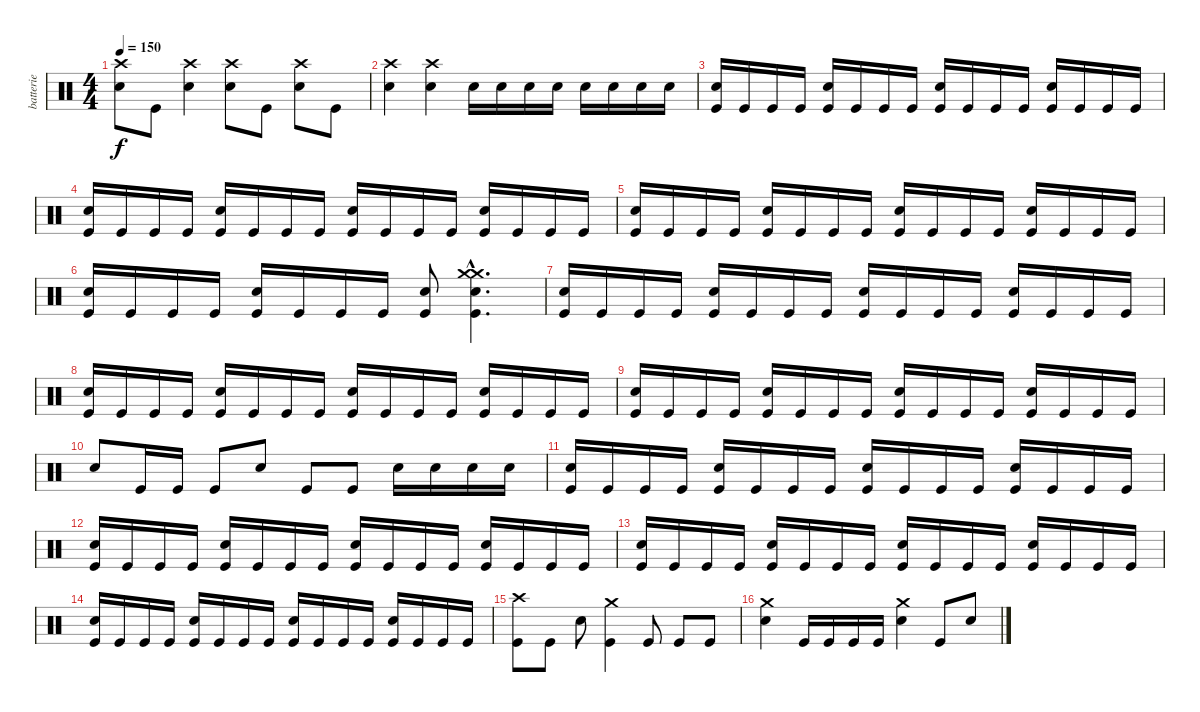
\track ("batterie" "batterie") {instrument percussion}
\staff {score}
\articulation defaults
\ts (4 4)
\tempo 150
\clef neutral
\ks c
("Crash high (hit)" "Snare (hit) 2").8{dy f} "Kick (hit)".8 ("Crash high (hit)" "Snare (hit) 2").4 ("Crash high (hit)" "Snare (hit) 2").8 "Kick (hit)".8 ("Crash high (hit)" "Snare (hit) 2").8 "Kick (hit)".8 |
("Crash high (hit)" "Snare (hit) 2").4 ("Crash high (hit)" "Snare (hit) 2").4 "Snare (hit) 2".16 "Snare (hit) 2".16 "Snare (hit) 2".16 "Snare (hit) 2".16 "Snare (hit) 2".16 "Snare (hit) 2".16 "Snare (hit) 2".16 "Snare (hit) 2".16 |
("Snare (hit) 2" "Kick (hit)").16 "Kick (hit)".16 "Kick (hit)".16 "Kick (hit)".16 ("Snare (hit) 2" "Kick (hit)").16 "Kick (hit)".16 "Kick (hit)".16 "Kick (hit)".16 ("Snare (hit) 2" "Kick (hit)").16 "Kick (hit)".16 "Kick (hit)".16 "Kick (hit)".16 ("Snare (hit) 2" "Kick (hit)").16 "Kick (hit)".16 "Kick (hit)".16 "Kick (hit)".16 |
("Snare (hit) 2" "Kick (hit)").16 "Kick (hit)".16 "Kick (hit)".16 "Kick (hit)".16 ("Snare (hit) 2" "Kick (hit)").16 "Kick (hit)".16 "Kick (hit)".16 "Kick (hit)".16 ("Snare (hit) 2" "Kick (hit)").16 "Kick (hit)".16 "Kick (hit)".16 "Kick (hit)".16 ("Snare (hit) 2" "Kick (hit)").16 "Kick (hit)".16 "Kick (hit)".16 "Kick (hit)".16 |
("Snare (hit) 2" "Kick (hit)").16 "Kick (hit)".16 "Kick (hit)".16 "Kick (hit)".16 ("Snare (hit) 2" "Kick (hit)").16 "Kick (hit)".16 "Kick (hit)".16 "Kick (hit)".16 ("Snare (hit) 2" "Kick (hit)").16 "Kick (hit)".16 "Kick (hit)".16 "Kick (hit)".16 ("Snare (hit) 2" "Kick (hit)").16 "Kick (hit)".16 "Kick (hit)".16 "Kick (hit)".16 |
("Snare (hit) 2" "Kick (hit)").16 "Kick (hit)".16 "Kick (hit)".16 "Kick (hit)".16 ("Snare (hit) 2" "Kick (hit)").16 "Kick (hit)".16 "Kick (hit)".16 "Kick (hit)".16 ("Snare (hit) 2" "Kick (hit)").8 ("Crash medium (hit)"{hac} "Crash medium (hit)"{hac} "Snare (hit) 2"{hac} "Kick (hit)"{hac}).4{d} |
("Snare (hit) 2" "Kick (hit)").16 "Kick (hit)".16 "Kick (hit)".16 "Kick (hit)".16 ("Snare (hit) 2" "Kick (hit)").16 "Kick (hit)".16 "Kick (hit)".16 "Kick (hit)".16 ("Snare (hit) 2" "Kick (hit)").16 "Kick (hit)".16 "Kick (hit)".16 "Kick (hit)".16 ("Snare (hit) 2" "Kick (hit)").16 "Kick (hit)".16 "Kick (hit)".16 "Kick (hit)".16 |
("Snare (hit) 2" "Kick (hit)").16 "Kick (hit)".16 "Kick (hit)".16 "Kick (hit)".16 ("Snare (hit) 2" "Kick (hit)").16 "Kick (hit)".16 "Kick (hit)".16 "Kick (hit)".16 ("Snare (hit) 2" "Kick (hit)").16 "Kick (hit)".16 "Kick (hit)".16 "Kick (hit)".16 ("Snare (hit) 2" "Kick (hit)").16 "Kick (hit)".16 "Kick (hit)".16 "Kick (hit)".16 |
("Snare (hit) 2" "Kick (hit)").16 "Kick (hit)".16 "Kick (hit)".16 "Kick (hit)".16 ("Snare (hit) 2" "Kick (hit)").16 "Kick (hit)".16 "Kick (hit)".16 "Kick (hit)".16 ("Snare (hit) 2" "Kick (hit)").16 "Kick (hit)".16 "Kick (hit)".16 "Kick (hit)".16 ("Snare (hit) 2" "Kick (hit)").16 "Kick (hit)".16 "Kick (hit)".16 "Kick (hit)".16 |
"Snare (hit) 2".8 "Kick (hit)".16 "Kick (hit)".16 "Kick (hit)".8 "Snare (hit) 2".8 "Kick (hit)".8 "Kick (hit)".8 "Snare (hit) 2".16 "Snare (hit) 2".16 "Snare (hit) 2".16 "Snare (hit) 2".16 |
("Snare (hit) 2" "Kick (hit)").16 "Kick (hit)".16 "Kick (hit)".16 "Kick (hit)".16 ("Snare (hit) 2" "Kick (hit)").16 "Kick (hit)".16 "Kick (hit)".16 "Kick (hit)".16 ("Snare (hit) 2" "Kick (hit)").16 "Kick (hit)".16 "Kick (hit)".16 "Kick (hit)".16 ("Snare (hit) 2" "Kick (hit)").16 "Kick (hit)".16 "Kick (hit)".16 "Kick (hit)".16 |
("Snare (hit) 2" "Kick (hit)").16 "Kick (hit)".16 "Kick (hit)".16 "Kick (hit)".16 ("Snare (hit) 2" "Kick (hit)").16 "Kick (hit)".16 "Kick (hit)".16 "Kick (hit)".16 ("Snare (hit) 2" "Kick (hit)").16 "Kick (hit)".16 "Kick (hit)".16 "Kick (hit)".16 ("Snare (hit) 2" "Kick (hit)").16 "Kick (hit)".16 "Kick (hit)".16 "Kick (hit)".16 |
("Snare (hit) 2" "Kick (hit)").16 "Kick (hit)".16 "Kick (hit)".16 "Kick (hit)".16 ("Snare (hit) 2" "Kick (hit)").16 "Kick (hit)".16 "Kick (hit)".16 "Kick (hit)".16 ("Snare (hit) 2" "Kick (hit)").16 "Kick (hit)".16 "Kick (hit)".16 "Kick (hit)".16 ("Snare (hit) 2" "Kick (hit)").16 "Kick (hit)".16 "Kick (hit)".16 "Kick (hit)".16 |
("Snare (hit) 2" "Kick (hit)").16 "Kick (hit)".16 "Kick (hit)".16 "Kick (hit)".16 ("Snare (hit) 2" "Kick (hit)").16 "Kick (hit)".16 "Kick (hit)".16 "Kick (hit)".16 ("Snare (hit) 2" "Kick (hit)").16 "Kick (hit)".16 "Kick (hit)".16 "Kick (hit)".16 ("Snare (hit) 2" "Kick (hit)").16 "Kick (hit)".16 "Kick (hit)".16 "Kick (hit)".16 |
("Crash high (hit)" "Kick (hit)").8 "Kick (hit)".8 "Snare (hit) 2".8 ("Crash medium (hit)" "Kick (hit)").4 "Kick (hit)".8 "Kick (hit)".8 "Kick (hit)".8 |
("Crash medium (hit)" "Snare (hit) 2").4 "Kick (hit)".16 "Kick (hit)".16 "Kick (hit)".16 "Kick (hit)".16 ("Crash medium (hit)" "Snare (hit) 2").4 "Kick (hit)".8 "Snare (hit) 2".8
